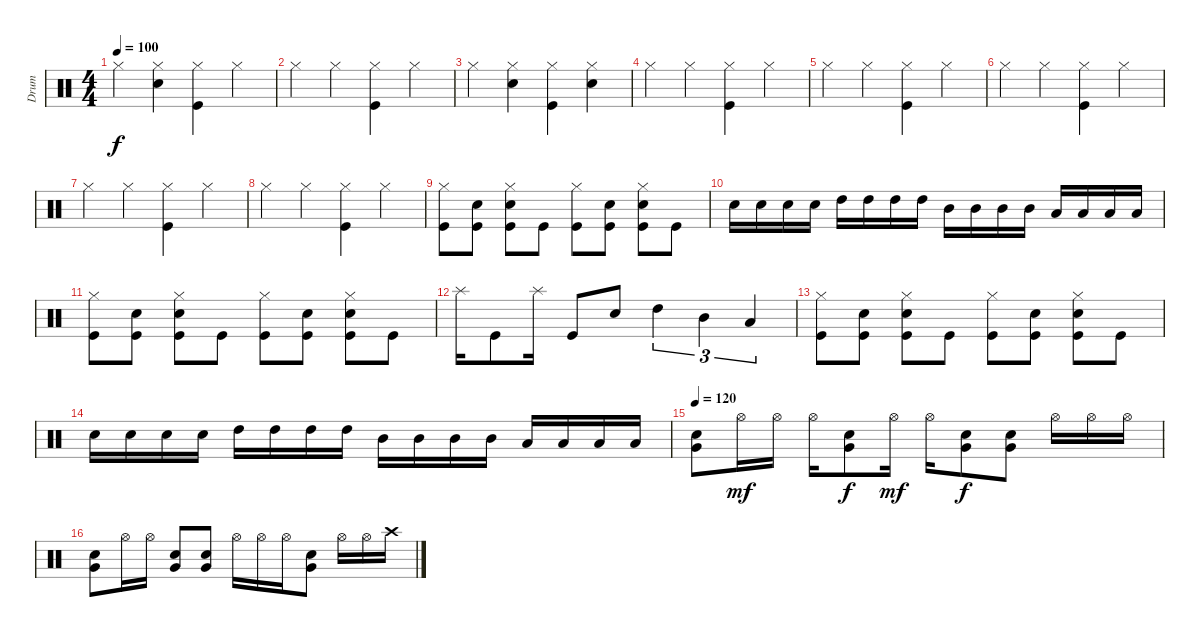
\track ("Drum" "Drum") {instrument percussion}
\staff {score}
\articulation defaults
\ts (4 4)
\tempo 100
\clef neutral
\ks c "Hi-Hat (closed)".4{dy f}
("Hi-Hat (closed)" "Snare (hit) 2").4 ("Hi-Hat (closed)" "Kick (hit)").4 "Hi-Hat (closed)".4 |
"Hi-Hat (closed)".4 "Hi-Hat (closed)".4 ("Hi-Hat (closed)" "Kick (hit)").4 "Hi-Hat (closed)".4 |
"Hi-Hat (closed)".4 ("Hi-Hat (closed)" "Snare (hit) 2").4 ("Hi-Hat (closed)" "Kick (hit)").4 ("Hi-Hat (closed)" "Snare (hit) 2").4 |
"Hi-Hat (closed)".4 "Hi-Hat (closed)".4 ("Hi-Hat (closed)" "Kick (hit)").4 "Hi-Hat (closed)".4 |
"Hi-Hat (closed)".4 "Hi-Hat (closed)".4 ("Hi-Hat (closed)" "Kick (hit)").4 "Hi-Hat (closed)".4 |
"Hi-Hat (closed)".4 "Hi-Hat (closed)".4 ("Hi-Hat (closed)" "Kick (hit)").4 "Hi-Hat (closed)".4 |
"Hi-Hat (closed)".4 "Hi-Hat (closed)".4 ("Hi-Hat (closed)" "Kick (hit)").4 "Hi-Hat (closed)".4 |
"Hi-Hat (closed)".4 "Hi-Hat (closed)".4 ("Hi-Hat (closed)" "Kick (hit)").4 "Hi-Hat (closed)".4 |
("Hi-Hat (closed)" "Kick (hit)").8 ("Snare (hit) 2" "Kick (hit)").8 ("Hi-Hat (closed)" "Snare (hit) 2" "Kick (hit)").8 "Kick (hit)".8 ("Hi-Hat (closed)" "Kick (hit)").8 ("Snare (hit) 2" "Kick (hit)").8 ("Hi-Hat (closed)" "Snare (hit) 2" "Kick (hit)").8 "Kick (hit)".8 |
"Snare (hit) 2".16 "Snare (hit) 2".16 "Snare (hit) 2".16 "Snare (hit) 2".16 "High Tom (hit)".16 "High Tom (hit)".16 "High Tom (hit)".16 "High Tom (hit)".16 "Mid Tom (hit)".16 "Mid Tom (hit)".16 "Mid Tom (hit)".16 "Mid Tom (hit)".16 "Low Floor Tom (hit)".16 "Low Floor Tom (hit)".16 "Low Floor Tom (hit)".16 "Low Floor Tom (hit)".16 |
("Hi-Hat (closed)" "Kick (hit)").8 ("Snare (hit) 2" "Kick (hit)").8 ("Hi-Hat (closed)" "Snare (hit) 2" "Kick (hit)").8 "Kick (hit)".8 ("Hi-Hat (closed)" "Kick (hit)").8 ("Snare (hit) 2" "Kick (hit)").8 ("Hi-Hat (closed)" "Snare (hit) 2" "Kick (hit)").8 "Kick (hit)".8 |
"Splash (hit)".16 "Kick (hit)".8 "Splash (hit)".16 "Kick (hit)".8 "Snare (hit) 2".8 "High Tom (hit)".4{tu (3 2)} "Mid Tom (hit)".4{tu (3 2)} "Low Floor Tom (hit)".4{tu (3 2)} |
("Hi-Hat (closed)" "Kick (hit)").8 ("Snare (hit) 2" "Kick (hit)").8 ("Hi-Hat (closed)" "Snare (hit) 2" "Kick (hit)").8 "Kick (hit)".8 ("Hi-Hat (closed)" "Kick (hit)").8 ("Snare (hit) 2" "Kick (hit)").8 ("Hi-Hat (closed)" "Snare (hit) 2" "Kick (hit)").8 "Kick (hit)".8 |
"Snare (hit) 2".16 "Snare (hit) 2".16 "Snare (hit) 2".16 "Snare (hit) 2".16 "High Tom (hit)".16 "High Tom (hit)".16 "High Tom (hit)".16 "High Tom (hit)".16 "Mid Tom (hit)".16 "Mid Tom (hit)".16 "Mid Tom (hit)".16 "Mid Tom (hit)".16 "Low Floor Tom (hit)".16 "Low Floor Tom (hit)".16 "Low Floor Tom (hit)".16 "Low Floor Tom (hit)".16 |
\tempo 120
("Snare (hit) 2" "Very Low Tom (hit)").8 "Hi-Hat (open)".16{dy mf} "Hi-Hat (open)".16 "Hi-Hat (open)".16 ("Snare (hit) 2" "Very Low Tom (hit)").8{dy f} "Hi-Hat (open)".16{dy mf} "Hi-Hat (open)".16 ("Snare (hit) 2" "Very Low Tom (hit)").8{dy f} ("Snare (hit) 2" "Very Low Tom (hit)").8 "Hi-Hat (open)".16 "Hi-Hat (open)".16 "Hi-Hat (open)".16 |
("Snare (hit) 2" "Very Low Tom (hit)").8 "Hi-Hat (open)".16 "Hi-Hat (open)".16 ("Snare (hit) 2" "Very Low Tom (hit)").8 ("Snare (hit) 2" "Very Low Tom (hit)").8 "Hi-Hat (open)".16 "Hi-Hat (open)".16 "Hi-Hat (open)".16 ("Snare (hit) 2" "Very Low Tom (hit)").8 "Hi-Hat (open)".16 "Hi-Hat (open)".16 "Crash high (hit)".16
